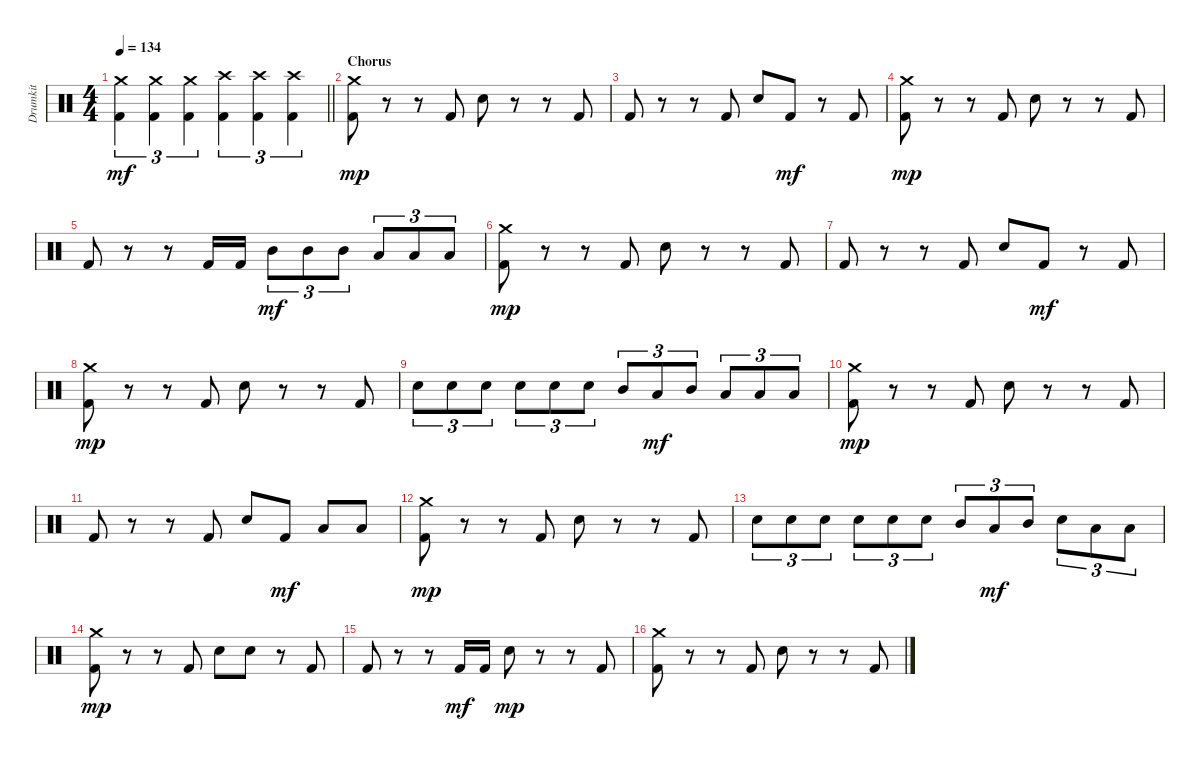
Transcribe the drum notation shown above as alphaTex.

\track ("Drumkit" "Drumkit") {instrument percussion}
\staff {score}
\articulation defaults
\ts (4 4)
\tempo 134
\clef neutral
\barLineRight lightlight
\ks c
("Kick (hit) 2" "Crash medium (hit)").4{tu (3 2) dy mf} ("Kick (hit) 2" "Crash medium (hit)").4{tu (3 2)} ("Kick (hit) 2" "Crash medium (hit)").4{tu (3 2)} ("Kick (hit) 2" "Crash high (hit)").4{tu (3 2)} ("Kick (hit) 2" "Crash high (hit)").4{tu (3 2)} ("Kick (hit) 2" "Crash high (hit)").4{tu (3 2)} |
\section ("" "Chorus")
("Kick (hit) 2" "Crash medium (hit)").8{dy mp} r.8 r.8 "Kick (hit) 2".8 "Snare (hit) 2".8 r.8 r.8 "Kick (hit) 2".8 |
"Kick (hit) 2".8 r.8 r.8 "Kick (hit) 2".8 "Snare (hit) 2".8 "Kick (hit) 2".8{dy mf} r.8 "Kick (hit) 2".8 |
("Kick (hit) 2" "Crash medium (hit)").8{dy mp} r.8 r.8 "Kick (hit) 2".8 "Snare (hit) 2".8 r.8 r.8 "Kick (hit) 2".8 |
"Kick (hit) 2".8 r.8 r.8 "Kick (hit) 2".16 "Kick (hit) 2".16 "Mid Tom (hit)".8{tu (3 2) dy mf} "Mid Tom (hit)".8{tu (3 2)} "Mid Tom (hit)".8{tu (3 2)} "Low Tom (hit)".8{tu (3 2)} "Low Tom (hit)".8{tu (3 2)} "Low Tom (hit)".8{tu (3 2)} |
("Kick (hit) 2" "Crash medium (hit)").8{dy mp} r.8 r.8 "Kick (hit) 2".8 "Snare (hit) 2".8 r.8 r.8 "Kick (hit) 2".8 |
"Kick (hit) 2".8 r.8 r.8 "Kick (hit) 2".8 "Snare (hit) 2".8 "Kick (hit) 2".8{dy mf} r.8 "Kick (hit) 2".8 |
("Kick (hit) 2" "Crash medium (hit)").8{dy mp} r.8 r.8 "Kick (hit) 2".8 "Snare (hit) 2".8 r.8 r.8 "Kick (hit) 2".8 |
"Snare (hit) 2".8{tu (3 2)} "Snare (hit) 2".8{tu (3 2)} "Snare (hit) 2".8{tu (3 2)} "Snare (hit) 2".8{tu (3 2)} "Snare (hit) 2".8{tu (3 2)} "Snare (hit) 2".8{tu (3 2)} "Mid Tom (hit)".8{tu (3 2)} "Low Tom (hit)".8{tu (3 2) dy mf} "Mid Tom (hit)".8{tu (3 2)} "Low Tom (hit)".8{tu (3 2)} "Low Tom (hit)".8{tu (3 2)} "Low Tom (hit)".8{tu (3 2)} |
("Kick (hit) 2" "Crash medium (hit)").8{dy mp} r.8 r.8 "Kick (hit) 2".8 "Snare (hit) 2".8 r.8 r.8 "Kick (hit) 2".8 |
"Kick (hit) 2".8 r.8 r.8 "Kick (hit) 2".8 "Snare (hit) 2".8 "Kick (hit) 2".8{dy mf} "Low Floor Tom (hit)".8 "Low Floor Tom (hit)".8 |
("Kick (hit) 2" "Crash medium (hit)").8{dy mp} r.8 r.8 "Kick (hit) 2".8 "Snare (hit) 2".8 r.8 r.8 "Kick (hit) 2".8 |
"Snare (hit) 2".8{tu (3 2)} "Snare (hit) 2".8{tu (3 2)} "Snare (hit) 2".8{tu (3 2)} "Snare (hit) 2".8{tu (3 2)} "Snare (hit) 2".8{tu (3 2)} "Snare (hit) 2".8{tu (3 2)} "Mid Tom (hit)".8{tu (3 2)} "Low Tom (hit)".8{tu (3 2) dy mf} "Mid Tom (hit)".8{tu (3 2)} "Snare (hit) 2".8{tu (3 2)} "Low Tom (hit)".8{tu (3 2)} "Low Tom (hit)".8{tu (3 2)} |
("Kick (hit) 2" "Crash medium (hit)").8{dy mp} r.8 r.8 "Kick (hit) 2".8 "Snare (hit) 2".8 "Snare (hit) 2".8 r.8 "Kick (hit) 2".8 |
"Kick (hit) 2".8 r.8 r.8 "Kick (hit) 2".16{dy mf} "Kick (hit) 2".16 "Snare (hit) 2".8{dy mp} r.8 r.8 "Kick (hit) 2".8 |
("Kick (hit) 2" "Crash medium (hit)").8 r.8 r.8 "Kick (hit) 2".8 "Snare (hit) 2".8 r.8 r.8 "Kick (hit) 2".8
